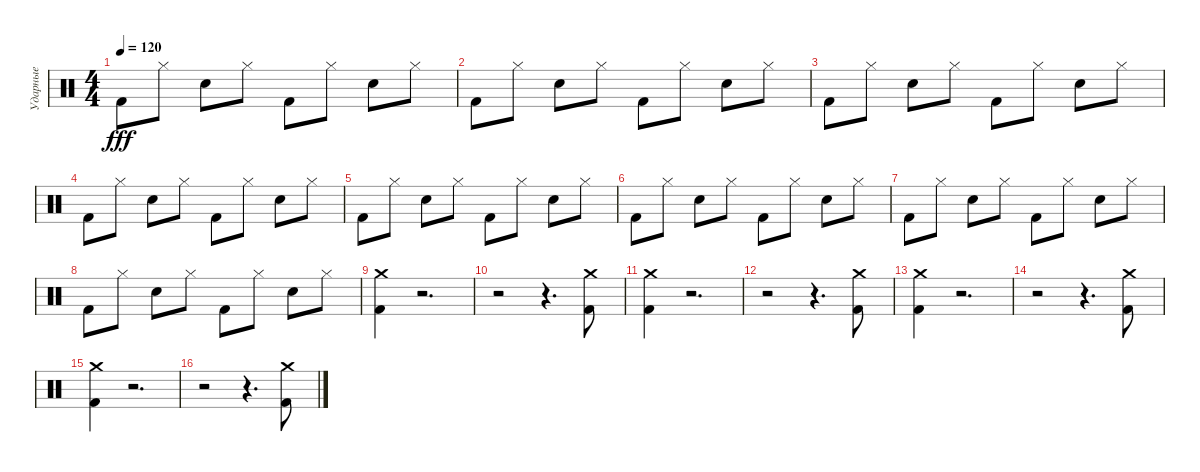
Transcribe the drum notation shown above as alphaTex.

\track ("Ударные" "Ударные") {instrument percussion}
\staff {score}
\articulation defaults
\ts (4 4)
\tempo 120
\clef neutral
\ks c "Kick (hit) 2".8{dy fff} "Hi-Hat (closed)".8 "Electric Snare (hit)".8 "Hi-Hat (closed)".8 "Kick (hit) 2".8 "Hi-Hat (closed)".8 "Electric Snare (hit)".8 "Hi-Hat (closed)".8
|
"Kick (hit) 2".8 "Hi-Hat (closed)".8 "Electric Snare (hit)".8 "Hi-Hat (closed)".8 "Kick (hit) 2".8 "Hi-Hat (closed)".8 "Electric Snare (hit)".8 "Hi-Hat (closed)".8 |
"Kick (hit) 2".8 "Hi-Hat (closed)".8 "Electric Snare (hit)".8 "Hi-Hat (closed)".8 "Kick (hit) 2".8 "Hi-Hat (closed)".8 "Electric Snare (hit)".8 "Hi-Hat (closed)".8 |
"Kick (hit) 2".8 "Hi-Hat (closed)".8 "Electric Snare (hit)".8 "Hi-Hat (closed)".8 "Kick (hit) 2".8 "Hi-Hat (closed)".8 "Electric Snare (hit)".8 "Hi-Hat (closed)".8 |
"Kick (hit) 2".8 "Hi-Hat (closed)".8 "Electric Snare (hit)".8 "Hi-Hat (closed)".8 "Kick (hit) 2".8 "Hi-Hat (closed)".8 "Electric Snare (hit)".8 "Hi-Hat (closed)".8 |
"Kick (hit) 2".8 "Hi-Hat (closed)".8 "Electric Snare (hit)".8 "Hi-Hat (closed)".8 "Kick (hit) 2".8 "Hi-Hat (closed)".8 "Electric Snare (hit)".8 "Hi-Hat (closed)".8 |
"Kick (hit) 2".8 "Hi-Hat (closed)".8 "Electric Snare (hit)".8 "Hi-Hat (closed)".8 "Kick (hit) 2".8 "Hi-Hat (closed)".8 "Electric Snare (hit)".8 "Hi-Hat (closed)".8 |
"Kick (hit) 2".8 "Hi-Hat (closed)".8 "Electric Snare (hit)".8 "Hi-Hat (closed)".8 "Kick (hit) 2".8 "Hi-Hat (closed)".8 "Electric Snare (hit)".8 "Hi-Hat (closed)".8 |
("Crash medium (hit)" "Kick (hit) 2").4 r.2{d} |
r.2 r.4{d} ("Crash medium (hit)" "Kick (hit) 2").8 |
("Crash medium (hit)" "Kick (hit) 2").4 r.2{d} |
r.2 r.4{d} ("Crash medium (hit)" "Kick (hit) 2").8 |
("Crash medium (hit)" "Kick (hit) 2").4 r.2{d} |
r.2 r.4{d} ("Crash medium (hit)" "Kick (hit) 2").8 |
("Crash medium (hit)" "Kick (hit) 2").4 r.2{d} |
r.2 r.4{d} ("Crash medium (hit)" "Kick (hit) 2").8
